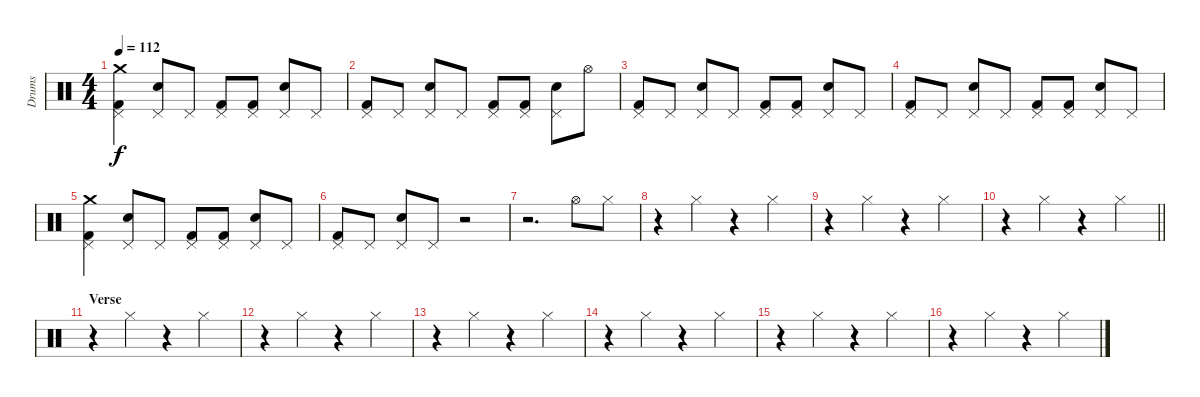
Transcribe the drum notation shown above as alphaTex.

\track ("Drums" "Drums") {instrument percussion}
\staff {score}
\articulation defaults
\ts (4 4)
\tempo 112
\clef neutral
\ks c
("Crash medium (hit)" "Pedal Hi-Hat (hit)" "Kick (hit) 2").4{dy f} ("Pedal Hi-Hat (hit)" "Electric Snare (hit)").8 "Pedal Hi-Hat (hit)".8 ("Pedal Hi-Hat (hit)" "Kick (hit) 2").8 ("Pedal Hi-Hat (hit)" "Kick (hit) 2").8 ("Pedal Hi-Hat (hit)" "Electric Snare (hit)").8 "Pedal Hi-Hat (hit)".8 |
("Pedal Hi-Hat (hit)" "Kick (hit) 2").8 "Pedal Hi-Hat (hit)".8 ("Pedal Hi-Hat (hit)" "Electric Snare (hit)").8 "Pedal Hi-Hat (hit)".8 ("Pedal Hi-Hat (hit)" "Kick (hit) 2").8 ("Pedal Hi-Hat (hit)" "Kick (hit) 2").8 ("Pedal Hi-Hat (hit)" "Electric Snare (hit)").8 "Hi-Hat (open)".8 |
("Pedal Hi-Hat (hit)" "Kick (hit) 2").8 "Pedal Hi-Hat (hit)".8 ("Pedal Hi-Hat (hit)" "Electric Snare (hit)").8 "Pedal Hi-Hat (hit)".8 ("Pedal Hi-Hat (hit)" "Kick (hit) 2").8 ("Pedal Hi-Hat (hit)" "Kick (hit) 2").8 ("Pedal Hi-Hat (hit)" "Electric Snare (hit)").8 "Pedal Hi-Hat (hit)".8 |
("Pedal Hi-Hat (hit)" "Kick (hit) 2").8 "Pedal Hi-Hat (hit)".8 ("Pedal Hi-Hat (hit)" "Electric Snare (hit)").8 "Pedal Hi-Hat (hit)".8 ("Pedal Hi-Hat (hit)" "Kick (hit) 2").8 ("Pedal Hi-Hat (hit)" "Kick (hit) 2").8 ("Pedal Hi-Hat (hit)" "Electric Snare (hit)").8 "Pedal Hi-Hat (hit)".8 |
("Crash medium (hit)" "Pedal Hi-Hat (hit)" "Kick (hit) 2").4 ("Pedal Hi-Hat (hit)" "Electric Snare (hit)").8 "Pedal Hi-Hat (hit)".8 ("Pedal Hi-Hat (hit)" "Kick (hit) 2").8 ("Pedal Hi-Hat (hit)" "Kick (hit) 2").8 ("Pedal Hi-Hat (hit)" "Electric Snare (hit)").8 "Pedal Hi-Hat (hit)".8 |
("Pedal Hi-Hat (hit)" "Kick (hit) 2").8 "Pedal Hi-Hat (hit)".8 ("Pedal Hi-Hat (hit)" "Electric Snare (hit)").8 "Pedal Hi-Hat (hit)".8 r.2 |
r.2{d} "Hi-Hat (open)".8 "Hi-Hat (closed)".8 |
r.4 "Hi-Hat (closed)".4 r.4 "Hi-Hat (closed)".4 |
r.4 "Hi-Hat (closed)".4 r.4 "Hi-Hat (closed)".4 |
\barLineRight lightlight
r.4 "Hi-Hat (closed)".4 r.4 "Hi-Hat (closed)".4 |
\section ("" "Verse")
r.4 "Hi-Hat (closed)".4 r.4 "Hi-Hat (closed)".4 |
r.4 "Hi-Hat (closed)".4 r.4 "Hi-Hat (closed)".4 |
r.4 "Hi-Hat (closed)".4 r.4 "Hi-Hat (closed)".4 |
r.4 "Hi-Hat (closed)".4 r.4 "Hi-Hat (closed)".4 |
r.4 "Hi-Hat (closed)".4 r.4 "Hi-Hat (closed)".4 |
r.4 "Hi-Hat (closed)".4 r.4 "Hi-Hat (closed)".4
